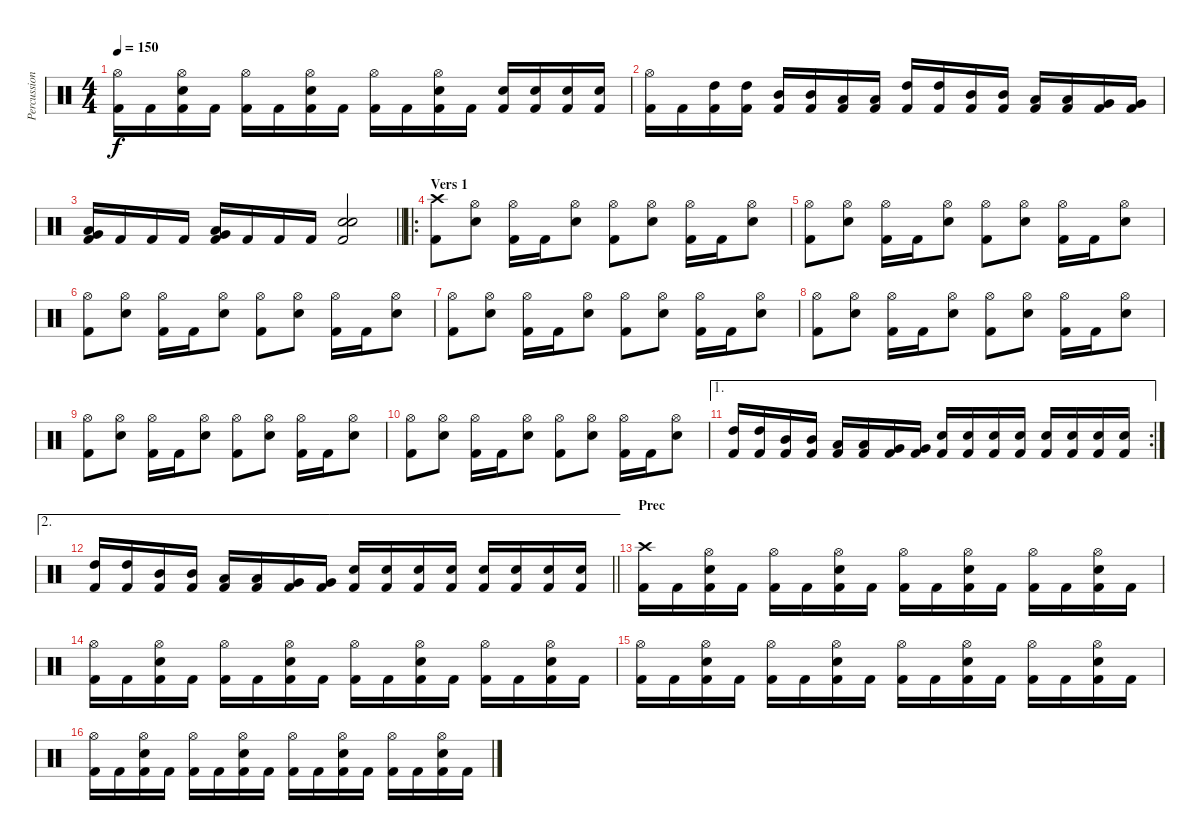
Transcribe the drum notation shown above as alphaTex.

\track ("Percussion" "Percussion") {instrument percussion}
\staff {score}
\articulation defaults
\ts (4 4)
\tempo 150
\clef neutral
\ks c
("Hi-Hat (open)" "Kick (hit) 2").16{dy f} "Kick (hit) 2".16 ("Hi-Hat (open)" "Snare (hit) 2" "Kick (hit) 2").16 "Kick (hit) 2".16 ("Hi-Hat (open)" "Kick (hit) 2").16 "Kick (hit) 2".16 ("Hi-Hat (open)" "Snare (hit) 2" "Kick (hit) 2").16 "Kick (hit) 2".16 ("Hi-Hat (open)" "Kick (hit) 2").16 "Kick (hit) 2".16 ("Hi-Hat (open)" "Snare (hit) 2" "Kick (hit) 2").16 "Kick (hit) 2".16 ("Snare (hit) 2" "Kick (hit) 2").16 ("Snare (hit) 2" "Kick (hit) 2").16 ("Snare (hit) 2" "Kick (hit) 2").16 ("Snare (hit) 2" "Kick (hit) 2").16 |
("Hi-Hat (open)" "Kick (hit) 2").16 "Kick (hit) 2".16 ("High Tom (hit)" "Kick (hit) 2").16 ("High Tom (hit)" "Kick (hit) 2").16 ("Mid Tom (hit)" "Kick (hit) 2").16 ("Mid Tom (hit)" "Kick (hit) 2").16 ("Low Tom (hit)" "Kick (hit) 2").16 ("Low Tom (hit)" "Kick (hit) 2").16 ("High Tom (hit)" "Kick (hit) 2").16 ("High Tom (hit)" "Kick (hit) 2").16 ("Mid Tom (hit)" "Kick (hit) 2").16 ("Mid Tom (hit)" "Kick (hit) 2").16 ("Low Tom (hit)" "Kick (hit) 2").16 ("Low Tom (hit)" "Kick (hit) 2").16 ("Very Low Tom (hit)" "Kick (hit) 2").16 ("Very Low Tom (hit)" "Kick (hit) 2").16 |
\barLineRight lightlight
("Low Floor Tom (hit)" "Very Low Tom (hit)" "Kick (hit) 2").16 "Kick (hit) 2".16 "Kick (hit) 2".16 "Kick (hit) 2".16 ("Low Floor Tom (hit)" "Very Low Tom (hit)" "Kick (hit) 2").16 "Kick (hit) 2".16 "Kick (hit) 2".16 "Kick (hit) 2".16 ("Snare (hit) 2" "Snare (hit) 2" "Kick (hit) 2").2 |
\ro
\section ("" "Vers 1")
("Crash high (hit)" "Kick (hit) 2").8 ("Hi-Hat (open)" "Snare (hit) 2").8 ("Hi-Hat (open)" "Kick (hit) 2").16 "Kick (hit) 2".16 ("Hi-Hat (open)" "Snare (hit) 2").8 ("Hi-Hat (open)" "Kick (hit) 2").8 ("Hi-Hat (open)" "Snare (hit) 2").8 ("Hi-Hat (open)" "Kick (hit) 2").16 "Kick (hit) 2".16 ("Hi-Hat (open)" "Snare (hit) 2").8 |
("Hi-Hat (open)" "Kick (hit) 2").8 ("Hi-Hat (open)" "Snare (hit) 2").8 ("Hi-Hat (open)" "Kick (hit) 2").16 "Kick (hit) 2".16 ("Hi-Hat (open)" "Snare (hit) 2").8 ("Hi-Hat (open)" "Kick (hit) 2").8 ("Hi-Hat (open)" "Snare (hit) 2").8 ("Hi-Hat (open)" "Kick (hit) 2").16 "Kick (hit) 2".16 ("Hi-Hat (open)" "Snare (hit) 2").8 |
("Hi-Hat (open)" "Kick (hit) 2").8 ("Hi-Hat (open)" "Snare (hit) 2").8 ("Hi-Hat (open)" "Kick (hit) 2").16 "Kick (hit) 2".16 ("Hi-Hat (open)" "Snare (hit) 2").8 ("Hi-Hat (open)" "Kick (hit) 2").8 ("Hi-Hat (open)" "Snare (hit) 2").8 ("Hi-Hat (open)" "Kick (hit) 2").16 "Kick (hit) 2".16 ("Hi-Hat (open)" "Snare (hit) 2").8 |
("Hi-Hat (open)" "Kick (hit) 2").8 ("Hi-Hat (open)" "Snare (hit) 2").8 ("Hi-Hat (open)" "Kick (hit) 2").16 "Kick (hit) 2".16 ("Hi-Hat (open)" "Snare (hit) 2").8 ("Hi-Hat (open)" "Kick (hit) 2").8 ("Hi-Hat (open)" "Snare (hit) 2").8 ("Hi-Hat (open)" "Kick (hit) 2").16 "Kick (hit) 2".16 ("Hi-Hat (open)" "Snare (hit) 2").8 |
("Hi-Hat (open)" "Kick (hit) 2").8 ("Hi-Hat (open)" "Snare (hit) 2").8 ("Hi-Hat (open)" "Kick (hit) 2").16 "Kick (hit) 2".16 ("Hi-Hat (open)" "Snare (hit) 2").8 ("Hi-Hat (open)" "Kick (hit) 2").8 ("Hi-Hat (open)" "Snare (hit) 2").8 ("Hi-Hat (open)" "Kick (hit) 2").16 "Kick (hit) 2".16 ("Hi-Hat (open)" "Snare (hit) 2").8 |
("Hi-Hat (open)" "Kick (hit) 2").8 ("Hi-Hat (open)" "Snare (hit) 2").8 ("Hi-Hat (open)" "Kick (hit) 2").16 "Kick (hit) 2".16 ("Hi-Hat (open)" "Snare (hit) 2").8 ("Hi-Hat (open)" "Kick (hit) 2").8 ("Hi-Hat (open)" "Snare (hit) 2").8 ("Hi-Hat (open)" "Kick (hit) 2").16 "Kick (hit) 2".16 ("Hi-Hat (open)" "Snare (hit) 2").8 |
("Hi-Hat (open)" "Kick (hit) 2").8 ("Hi-Hat (open)" "Snare (hit) 2").8 ("Hi-Hat (open)" "Kick (hit) 2").16 "Kick (hit) 2".16 ("Hi-Hat (open)" "Snare (hit) 2").8 ("Hi-Hat (open)" "Kick (hit) 2").8 ("Hi-Hat (open)" "Snare (hit) 2").8 ("Hi-Hat (open)" "Kick (hit) 2").16 "Kick (hit) 2".16 ("Hi-Hat (open)" "Snare (hit) 2").8 |
\ae 1
\rc 2
("High Tom (hit)" "Kick (hit) 2").16 ("High Tom (hit)" "Kick (hit) 2").16 ("Mid Tom (hit)" "Kick (hit) 2").16 ("Mid Tom (hit)" "Kick (hit) 2").16 ("Low Tom (hit)" "Kick (hit) 2").16 ("Low Tom (hit)" "Kick (hit) 2").16 ("Very Low Tom (hit)" "Kick (hit) 2").16 ("Very Low Tom (hit)" "Kick (hit) 2").16 ("Snare (hit) 2" "Kick (hit) 2").16 ("Snare (hit) 2" "Kick (hit) 2").16 ("Snare (hit) 2" "Kick (hit) 2").16 ("Snare (hit) 2" "Kick (hit) 2").16 ("Snare (hit) 2" "Kick (hit) 2").16 ("Snare (hit) 2" "Kick (hit) 2").16 ("Snare (hit) 2" "Kick (hit) 2").16 ("Snare (hit) 2" "Kick (hit) 2").16 |
\ae 2
\barLineRight lightlight
("High Tom (hit)" "Kick (hit) 2").16 ("High Tom (hit)" "Kick (hit) 2").16 ("Mid Tom (hit)" "Kick (hit) 2").16 ("Mid Tom (hit)" "Kick (hit) 2").16 ("Low Tom (hit)" "Kick (hit) 2").16 ("Low Tom (hit)" "Kick (hit) 2").16 ("Very Low Tom (hit)" "Kick (hit) 2").16 ("Very Low Tom (hit)" "Kick (hit) 2").16 ("Snare (hit) 2" "Kick (hit) 2").16 ("Snare (hit) 2" "Kick (hit) 2").16 ("Snare (hit) 2" "Kick (hit) 2").16 ("Snare (hit) 2" "Kick (hit) 2").16 ("Snare (hit) 2" "Kick (hit) 2").16 ("Snare (hit) 2" "Kick (hit) 2").16 ("Snare (hit) 2" "Kick (hit) 2").16 ("Snare (hit) 2" "Kick (hit) 2").16 |
\section ("" "Prec")
("Crash high (hit)" "Kick (hit) 2").16 "Kick (hit) 2".16 ("Hi-Hat (open)" "Snare (hit) 2" "Kick (hit) 2").16 "Kick (hit) 2".16 ("Hi-Hat (open)" "Kick (hit) 2").16 "Kick (hit) 2".16 ("Hi-Hat (open)" "Snare (hit) 2" "Kick (hit) 2").16 "Kick (hit) 2".16 ("Hi-Hat (open)" "Kick (hit) 2").16 "Kick (hit) 2".16 ("Hi-Hat (open)" "Snare (hit) 2" "Kick (hit) 2").16 "Kick (hit) 2".16 ("Hi-Hat (open)" "Kick (hit) 2").16 "Kick (hit) 2".16 ("Hi-Hat (open)" "Snare (hit) 2" "Kick (hit) 2").16 "Kick (hit) 2".16 |
("Hi-Hat (open)" "Kick (hit) 2").16 "Kick (hit) 2".16 ("Hi-Hat (open)" "Snare (hit) 2" "Kick (hit) 2").16 "Kick (hit) 2".16 ("Hi-Hat (open)" "Kick (hit) 2").16 "Kick (hit) 2".16 ("Hi-Hat (open)" "Snare (hit) 2" "Kick (hit) 2").16 "Kick (hit) 2".16 ("Hi-Hat (open)" "Kick (hit) 2").16 "Kick (hit) 2".16 ("Hi-Hat (open)" "Snare (hit) 2" "Kick (hit) 2").16 "Kick (hit) 2".16 ("Hi-Hat (open)" "Kick (hit) 2").16 "Kick (hit) 2".16 ("Hi-Hat (open)" "Snare (hit) 2" "Kick (hit) 2").16 "Kick (hit) 2".16 |
("Hi-Hat (open)" "Kick (hit) 2").16 "Kick (hit) 2".16 ("Hi-Hat (open)" "Snare (hit) 2" "Kick (hit) 2").16 "Kick (hit) 2".16 ("Hi-Hat (open)" "Kick (hit) 2").16 "Kick (hit) 2".16 ("Hi-Hat (open)" "Snare (hit) 2" "Kick (hit) 2").16 "Kick (hit) 2".16 ("Hi-Hat (open)" "Kick (hit) 2").16 "Kick (hit) 2".16 ("Hi-Hat (open)" "Snare (hit) 2" "Kick (hit) 2").16 "Kick (hit) 2".16 ("Hi-Hat (open)" "Kick (hit) 2").16 "Kick (hit) 2".16 ("Hi-Hat (open)" "Snare (hit) 2" "Kick (hit) 2").16 "Kick (hit) 2".16 |
("Hi-Hat (open)" "Kick (hit) 2").16 "Kick (hit) 2".16 ("Hi-Hat (open)" "Snare (hit) 2" "Kick (hit) 2").16 "Kick (hit) 2".16 ("Hi-Hat (open)" "Kick (hit) 2").16 "Kick (hit) 2".16 ("Hi-Hat (open)" "Snare (hit) 2" "Kick (hit) 2").16 "Kick (hit) 2".16 ("Hi-Hat (open)" "Kick (hit) 2").16 "Kick (hit) 2".16 ("Hi-Hat (open)" "Snare (hit) 2" "Kick (hit) 2").16 "Kick (hit) 2".16 ("Hi-Hat (open)" "Kick (hit) 2").16 "Kick (hit) 2".16 ("Hi-Hat (open)" "Snare (hit) 2" "Kick (hit) 2").16 "Kick (hit) 2".16
